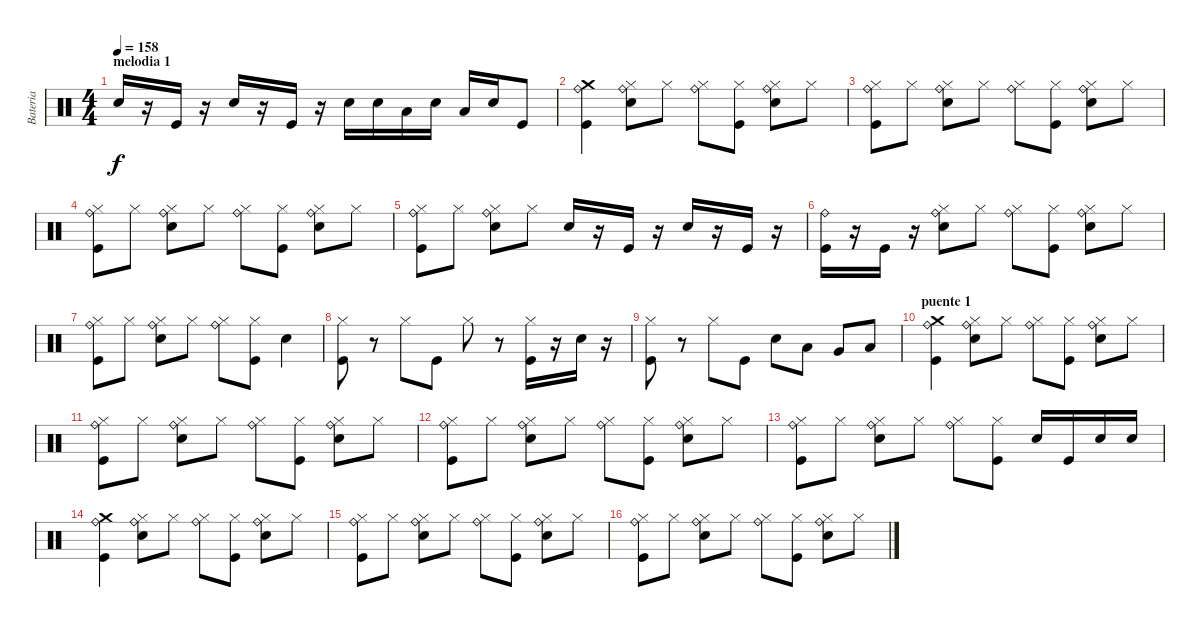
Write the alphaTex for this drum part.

\track ("Bateria" "Bateria") {instrument percussion}
\staff {score}
\articulation defaults
\ts (4 4)
\section ("" "melodia 1")
\tempo 158
\clef neutral
\ks c "Electric Snare (hit)".16{dy f}
r.16 "Kick (hit)".16 r.16 "Electric Snare (hit)".16 r.16 "Kick (hit)".16 r.16 "Electric Snare (hit)".16 "Electric Snare (hit)".16 "Low Tom (hit)".16 "Electric Snare (hit)".16 "Low Tom (hit)".16 "Electric Snare (hit)".16 "Kick (hit)".8 |
("Kick (hit)" "Crash medium (hit)" "Ride (bell)").4 ("Electric Snare (hit)" "Hi-Hat (closed)" "Ride (bell)").8 "Hi-Hat (closed)".8 ("Hi-Hat (closed)" "Ride (bell)").8 ("Kick (hit)" "Hi-Hat (closed)").8 ("Electric Snare (hit)" "Hi-Hat (closed)" "Ride (bell)").8 "Hi-Hat (closed)".8 |
("Kick (hit)" "Hi-Hat (closed)" "Ride (bell)").8 "Hi-Hat (closed)".8 ("Electric Snare (hit)" "Hi-Hat (closed)" "Ride (bell)").8 "Hi-Hat (closed)".8 ("Hi-Hat (closed)" "Ride (bell)").8 ("Kick (hit)" "Hi-Hat (closed)").8 ("Electric Snare (hit)" "Hi-Hat (closed)" "Ride (bell)").8 "Hi-Hat (closed)".8 |
("Kick (hit)" "Hi-Hat (closed)" "Ride (bell)").8 "Hi-Hat (closed)".8 ("Electric Snare (hit)" "Hi-Hat (closed)" "Ride (bell)").8 "Hi-Hat (closed)".8 ("Hi-Hat (closed)" "Ride (bell)").8 ("Kick (hit)" "Hi-Hat (closed)").8 ("Electric Snare (hit)" "Hi-Hat (closed)" "Ride (bell)").8 "Hi-Hat (closed)".8 |
("Kick (hit)" "Hi-Hat (closed)" "Ride (bell)").8 "Hi-Hat (closed)".8 ("Electric Snare (hit)" "Hi-Hat (closed)" "Ride (bell)").8 "Hi-Hat (closed)".8 "Electric Snare (hit)".16 r.16 "Kick (hit)".16 r.16 "Electric Snare (hit)".16 r.16 "Kick (hit)".16 r.16 |
("Kick (hit)" "Ride (bell)").16 r.16 "Kick (hit)".16 r.16 ("Electric Snare (hit)" "Hi-Hat (closed)" "Ride (bell)").8 "Hi-Hat (closed)".8 ("Hi-Hat (closed)" "Ride (bell)").8 ("Kick (hit)" "Hi-Hat (closed)").8 ("Electric Snare (hit)" "Hi-Hat (closed)" "Ride (bell)").8 "Hi-Hat (closed)".8 |
("Kick (hit)" "Hi-Hat (closed)" "Ride (bell)").8 "Hi-Hat (closed)".8 ("Electric Snare (hit)" "Hi-Hat (closed)" "Ride (bell)").8 "Hi-Hat (closed)".8 ("Hi-Hat (closed)" "Ride (bell)").8 ("Kick (hit)" "Hi-Hat (closed)").8 "Electric Snare (hit)".4 |
("Kick (hit)" "Hi-Hat (closed)").8 r.8 "Hi-Hat (closed)".8 "Kick (hit)".8 "Hi-Hat (closed)".8 r.8 ("Kick (hit)" "Hi-Hat (closed)").16 r.16 "Electric Snare (hit)".16 r.16 |
("Kick (hit)" "Hi-Hat (closed)").8 r.8 "Hi-Hat (closed)".8 "Kick (hit)".8 "Electric Snare (hit)".8 "Low Tom (hit)".8 "Very Low Tom (hit)".8 "Low Floor Tom (hit)".8 |
\section ("" "puente 1")
("Kick (hit)" "Crash medium (hit)" "Ride (bell)").4 ("Electric Snare (hit)" "Hi-Hat (closed)" "Ride (bell)").8 "Hi-Hat (closed)".8 ("Hi-Hat (closed)" "Ride (bell)").8 ("Kick (hit)" "Hi-Hat (closed)").8 ("Electric Snare (hit)" "Hi-Hat (closed)" "Ride (bell)").8 "Hi-Hat (closed)".8 |
("Kick (hit)" "Hi-Hat (closed)" "Ride (bell)").8 "Hi-Hat (closed)".8 ("Electric Snare (hit)" "Hi-Hat (closed)" "Ride (bell)").8 "Hi-Hat (closed)".8 ("Hi-Hat (closed)" "Ride (bell)").8 ("Kick (hit)" "Hi-Hat (closed)").8 ("Electric Snare (hit)" "Hi-Hat (closed)" "Ride (bell)").8 "Hi-Hat (closed)".8 |
("Kick (hit)" "Hi-Hat (closed)" "Ride (bell)").8 "Hi-Hat (closed)".8 ("Electric Snare (hit)" "Hi-Hat (closed)" "Ride (bell)").8 "Hi-Hat (closed)".8 ("Hi-Hat (closed)" "Ride (bell)").8 ("Kick (hit)" "Hi-Hat (closed)").8 ("Electric Snare (hit)" "Hi-Hat (closed)" "Ride (bell)").8 "Hi-Hat (closed)".8 |
("Kick (hit)" "Hi-Hat (closed)" "Ride (bell)").8 "Hi-Hat (closed)".8 ("Electric Snare (hit)" "Hi-Hat (closed)" "Ride (bell)").8 "Hi-Hat (closed)".8 ("Hi-Hat (closed)" "Ride (bell)").8 ("Kick (hit)" "Hi-Hat (closed)").8 "Electric Snare (hit)".16 "Kick (hit)".16 "Snare (hit) 2".16 "Electric Snare (hit)".16 |
("Kick (hit)" "Crash medium (hit)" "Ride (bell)").4 ("Electric Snare (hit)" "Hi-Hat (closed)" "Ride (bell)").8 "Hi-Hat (closed)".8 ("Hi-Hat (closed)" "Ride (bell)").8 ("Kick (hit)" "Hi-Hat (closed)").8 ("Electric Snare (hit)" "Hi-Hat (closed)" "Ride (bell)").8 "Hi-Hat (closed)".8 |
("Kick (hit)" "Hi-Hat (closed)" "Ride (bell)").8 "Hi-Hat (closed)".8 ("Electric Snare (hit)" "Hi-Hat (closed)" "Ride (bell)").8 "Hi-Hat (closed)".8 ("Hi-Hat (closed)" "Ride (bell)").8 ("Kick (hit)" "Hi-Hat (closed)").8 ("Electric Snare (hit)" "Hi-Hat (closed)" "Ride (bell)").8 "Hi-Hat (closed)".8 |
("Kick (hit)" "Hi-Hat (closed)" "Ride (bell)").8 "Hi-Hat (closed)".8 ("Electric Snare (hit)" "Hi-Hat (closed)" "Ride (bell)").8 "Hi-Hat (closed)".8 ("Hi-Hat (closed)" "Ride (bell)").8 ("Kick (hit)" "Hi-Hat (closed)").8 ("Electric Snare (hit)" "Hi-Hat (closed)" "Ride (bell)").8 "Hi-Hat (closed)".8
